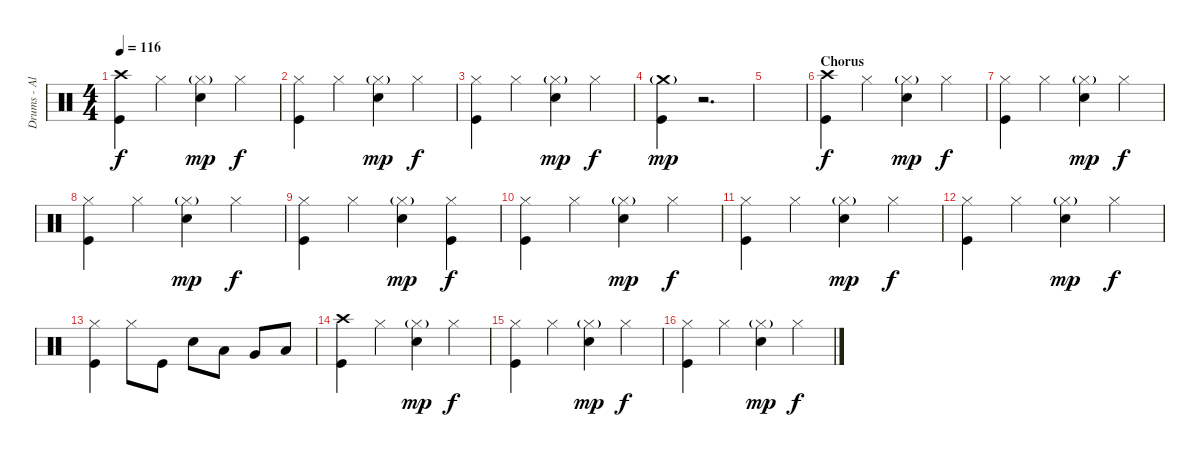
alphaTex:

\track ("Drums - Alex Holzwarth" "Drums - Al") {instrument percussion}
\staff {score}
\articulation defaults
\ts (4 4)
\tempo 116
\clef neutral
\ks c
("Crash high (hit)" "Kick (hit)").4{dy f} "Hi-Hat (closed)".4 ("Snare (hit) 2" "Hi-Hat (closed)"{g}).4{dy mp} "Hi-Hat (closed)".4{dy f} |
("Hi-Hat (closed)" "Kick (hit)").4 "Hi-Hat (closed)".4 ("Electric Snare (hit)" "Hi-Hat (closed)"{g}).4{dy mp} "Hi-Hat (closed)".4{dy f} |
("Hi-Hat (closed)" "Kick (hit)").4 "Hi-Hat (closed)".4 ("Electric Snare (hit)" "Hi-Hat (closed)"{g}).4{dy mp} "Hi-Hat (closed)".4{dy f} |
("Crash medium (hit)"{g} "Kick (hit)").4{dy mp} r.2{d} |
|
\section ("" "Chorus")
("Crash high (hit)" "Kick (hit)").4{dy f} "Hi-Hat (closed)".4 ("Snare (hit) 2" "Hi-Hat (closed)"{g}).4{dy mp} "Hi-Hat (closed)".4{dy f} |
("Hi-Hat (closed)" "Kick (hit)").4 "Hi-Hat (closed)".4 ("Electric Snare (hit)" "Hi-Hat (closed)"{g}).4{dy mp} "Hi-Hat (closed)".4{dy f} |
("Hi-Hat (closed)" "Kick (hit)").4 "Hi-Hat (closed)".4 ("Snare (hit) 2" "Hi-Hat (closed)"{g}).4{dy mp} "Hi-Hat (closed)".4{dy f} |
("Hi-Hat (closed)" "Kick (hit)").4 "Hi-Hat (closed)".4 ("Electric Snare (hit)" "Hi-Hat (closed)"{g}).4{dy mp} ("Hi-Hat (closed)" "Kick (hit)").4{dy f} |
("Hi-Hat (closed)" "Kick (hit)").4 "Hi-Hat (closed)".4 ("Snare (hit) 2" "Hi-Hat (closed)"{g}).4{dy mp} "Hi-Hat (closed)".4{dy f} |
("Hi-Hat (closed)" "Kick (hit)").4 "Hi-Hat (closed)".4 ("Electric Snare (hit)" "Hi-Hat (closed)"{g}).4{dy mp} "Hi-Hat (closed)".4{dy f} |
("Hi-Hat (closed)" "Kick (hit)").4 "Hi-Hat (closed)".4 ("Electric Snare (hit)" "Hi-Hat (closed)"{g}).4{dy mp} "Hi-Hat (closed)".4{dy f} |
("Hi-Hat (closed)" "Kick (hit)").4 "Hi-Hat (closed)".8 "Kick (hit)".8 "Electric Snare (hit)".8 "Low Tom (hit)".8 "Very Low Tom (hit)".8 "Low Floor Tom (hit)".8 |
("Crash high (hit)" "Kick (hit)").4 "Hi-Hat (closed)".4 ("Snare (hit) 2" "Hi-Hat (closed)"{g}).4{dy mp} "Hi-Hat (closed)".4{dy f} |
("Hi-Hat (closed)" "Kick (hit)").4 "Hi-Hat (closed)".4 ("Electric Snare (hit)" "Hi-Hat (closed)"{g}).4{dy mp} "Hi-Hat (closed)".4{dy f} |
("Hi-Hat (closed)" "Kick (hit)").4 "Hi-Hat (closed)".4 ("Snare (hit) 2" "Hi-Hat (closed)"{g}).4{dy mp} "Hi-Hat (closed)".4{dy f}
